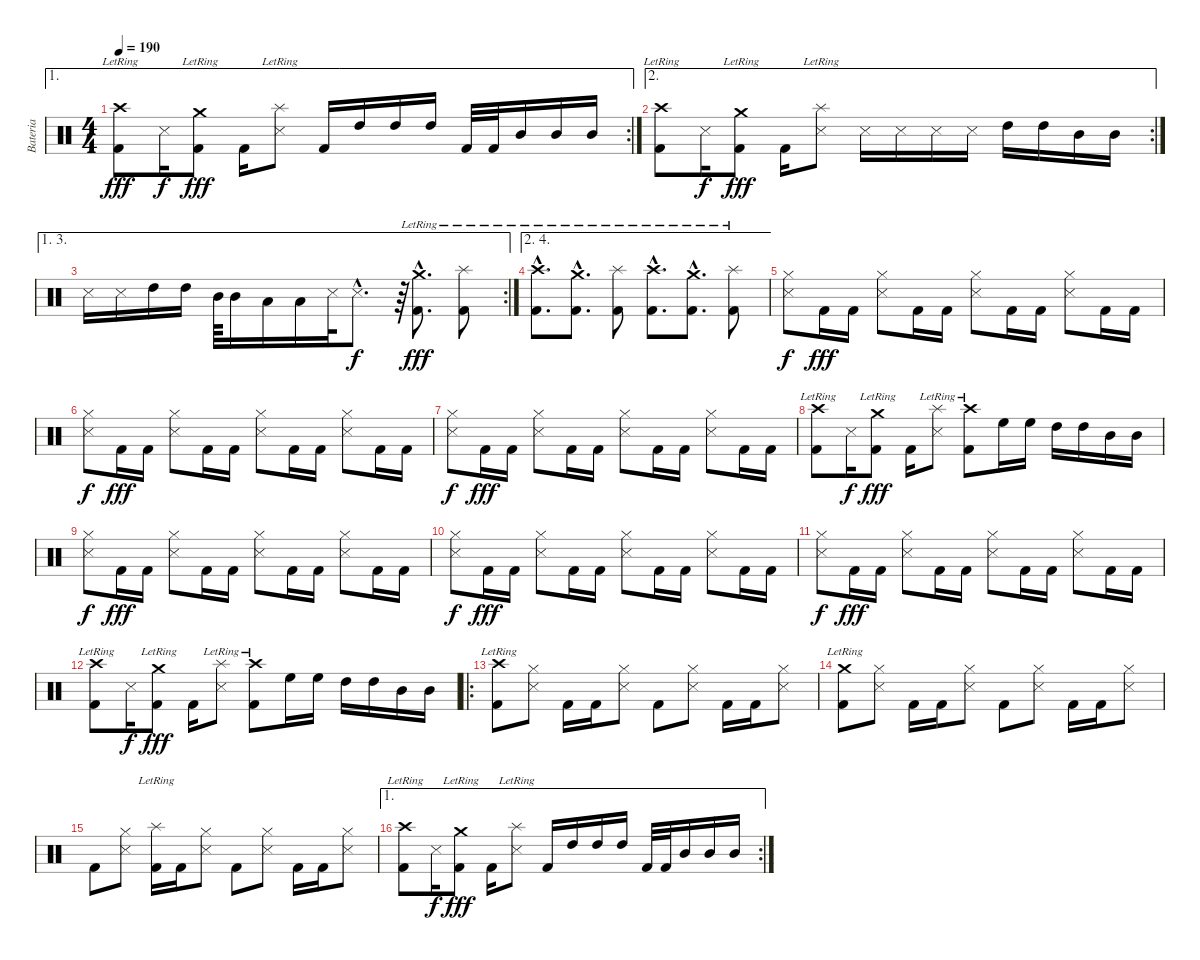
\track ("Bateria" "Bateria") {instrument percussion}
\staff {score}
\articulation defaults
\ae 1
\rc 2
\ts (4 4)
\tempo 190
\clef neutral
\ks c
("Crash high (hit)"{lr} "Kick (hit) 2").8{dy fff} "Snare (side stick) 3".16{dy f} ("Crash medium (hit)"{lr} "Kick (hit) 2").8{dy fff} "Kick (hit) 2".16 ("Splash (hit)"{lr} "Snare (side stick) 3").8 "Kick (hit) 2".16 "High Tom (hit)".16 "High Tom (hit)".16 "High Tom (hit)".16 "Kick (hit) 2".32 "Kick (hit) 2".32 "Mid Tom (hit)".16 "Mid Tom (hit)".16 "Mid Tom (hit)".16 |
\ae 2
\rc 2
("Crash high (hit)"{lr} "Kick (hit) 2").8 "Snare (side stick) 3".16{dy f} ("Crash medium (hit)"{lr} "Kick (hit) 2").8{dy fff} "Kick (hit) 2".16 ("Splash (hit)"{lr} "Snare (side stick) 3").8 "Snare (side stick) 3".16 "Snare (side stick) 3".16 "Snare (side stick) 3".16 "Snare (side stick) 3".16 "High Tom (hit)".16 "High Tom (hit)".16 "Mid Tom (hit)".16 "Mid Tom (hit)".16 |
\ae (1 3)
\rc 2 "Snare (side stick) 3".16 "Snare (side stick) 3".16 "High Tom (hit)".16 "High Tom (hit)".16 "Mid Tom (hit)".64 "Mid Tom (hit)".16 "Low Tom (hit)".16 "Low Tom (hit)".16 "Snare (side stick) 3".32 "Snare (side stick) 3"{hac}.8{d dy f}
r.64 ("Crash medium (hit)"{hac lr} "Kick (hit) 2"{hac}).8{d dy fff} ("Splash (hit)"{lr} "Kick (hit) 2").8 |
\ae (2 4)
("Crash high (hit)"{hac lr} "Kick (hit) 2"{hac}).8{d} ("Crash medium (hit)"{hac lr} "Kick (hit) 2"{hac}).8{d} ("Splash (hit)"{lr} "Kick (hit) 2").8 ("Crash high (hit)"{hac lr} "Kick (hit) 2"{hac}).8{d} ("Crash medium (hit)"{hac lr} "Kick (hit) 2"{hac}).8{d} ("Splash (hit)"{lr} "Kick (hit) 2").8 |
("Hi-Hat (closed)" "Snare (side stick) 3").8{dy f} "Kick (hit) 2".16{dy fff} "Kick (hit) 2".16 ("Hi-Hat (closed)" "Snare (side stick) 3").8 "Kick (hit) 2".16 "Kick (hit) 2".16 ("Hi-Hat (closed)" "Snare (side stick) 3").8 "Kick (hit) 2".16 "Kick (hit) 2".16 ("Hi-Hat (closed)" "Snare (side stick) 3").8 "Kick (hit) 2".16 "Kick (hit) 2".16 |
("Hi-Hat (closed)" "Snare (side stick) 3").8{dy f} "Kick (hit) 2".16{dy fff} "Kick (hit) 2".16 ("Hi-Hat (closed)" "Snare (side stick) 3").8 "Kick (hit) 2".16 "Kick (hit) 2".16 ("Hi-Hat (closed)" "Snare (side stick) 3").8 "Kick (hit) 2".16 "Kick (hit) 2".16 ("Hi-Hat (closed)" "Snare (side stick) 3").8 "Kick (hit) 2".16 "Kick (hit) 2".16 |
("Hi-Hat (closed)" "Snare (side stick) 3").8{dy f} "Kick (hit) 2".16{dy fff} "Kick (hit) 2".16 ("Hi-Hat (closed)" "Snare (side stick) 3").8 "Kick (hit) 2".16 "Kick (hit) 2".16 ("Hi-Hat (closed)" "Snare (side stick) 3").8 "Kick (hit) 2".16 "Kick (hit) 2".16 ("Hi-Hat (closed)" "Snare (side stick) 3").8 "Kick (hit) 2".16 "Kick (hit) 2".16 |
("Crash high (hit)"{lr} "Kick (hit) 2").8 "Snare (side stick) 3".16{dy f} ("Crash medium (hit)"{lr} "Kick (hit) 2").8{dy fff} "Kick (hit) 2".16 ("Splash (hit)"{lr} "Snare (side stick) 3").8 ("Crash high (hit)"{lr} "Kick (hit) 2").8 "High Floor Tom (hit)".16 "High Floor Tom (hit)".16 "High Tom (hit)".16 "High Tom (hit)".16 "Mid Tom (hit)".16 "Mid Tom (hit)".16 |
("Hi-Hat (closed)" "Snare (side stick) 3").8{dy f} "Kick (hit) 2".16{dy fff} "Kick (hit) 2".16 ("Hi-Hat (closed)" "Snare (side stick) 3").8 "Kick (hit) 2".16 "Kick (hit) 2".16 ("Hi-Hat (closed)" "Snare (side stick) 3").8 "Kick (hit) 2".16 "Kick (hit) 2".16 ("Hi-Hat (closed)" "Snare (side stick) 3").8 "Kick (hit) 2".16 "Kick (hit) 2".16 |
("Hi-Hat (closed)" "Snare (side stick) 3").8{dy f} "Kick (hit) 2".16{dy fff} "Kick (hit) 2".16 ("Hi-Hat (closed)" "Snare (side stick) 3").8 "Kick (hit) 2".16 "Kick (hit) 2".16 ("Hi-Hat (closed)" "Snare (side stick) 3").8 "Kick (hit) 2".16 "Kick (hit) 2".16 ("Hi-Hat (closed)" "Snare (side stick) 3").8 "Kick (hit) 2".16 "Kick (hit) 2".16 |
("Hi-Hat (closed)" "Snare (side stick) 3").8{dy f} "Kick (hit) 2".16{dy fff} "Kick (hit) 2".16 ("Hi-Hat (closed)" "Snare (side stick) 3").8 "Kick (hit) 2".16 "Kick (hit) 2".16 ("Hi-Hat (closed)" "Snare (side stick) 3").8 "Kick (hit) 2".16 "Kick (hit) 2".16 ("Hi-Hat (closed)" "Snare (side stick) 3").8 "Kick (hit) 2".16 "Kick (hit) 2".16 |
("Crash high (hit)"{lr} "Kick (hit) 2").8 "Snare (side stick) 3".16{dy f} ("Crash medium (hit)"{lr} "Kick (hit) 2").8{dy fff} "Kick (hit) 2".16 ("Splash (hit)"{lr} "Snare (side stick) 3").8 ("Crash high (hit)"{lr} "Kick (hit) 2").8 "High Floor Tom (hit)".16 "High Floor Tom (hit)".16 "High Tom (hit)".16 "High Tom (hit)".16 "Mid Tom (hit)".16 "Mid Tom (hit)".16 |
\ro
("Crash high (hit)"{lr} "Kick (hit) 2").8 ("Hi-Hat (closed)" "Snare (side stick) 3").8 "Kick (hit) 2".16 "Kick (hit) 2".16 ("Hi-Hat (closed)" "Snare (side stick) 3").8 "Kick (hit) 2".8 ("Hi-Hat (closed)" "Snare (side stick) 3").8 "Kick (hit) 2".16 "Kick (hit) 2".16 ("Hi-Hat (closed)" "Snare (side stick) 3").8 |
("Crash medium (hit)"{lr} "Kick (hit) 2").8 ("Hi-Hat (closed)" "Snare (side stick) 3").8 "Kick (hit) 2".16 "Kick (hit) 2".16 ("Hi-Hat (closed)" "Snare (side stick) 3").8 "Kick (hit) 2".8 ("Hi-Hat (closed)" "Snare (side stick) 3").8 "Kick (hit) 2".16 "Kick (hit) 2".16 ("Hi-Hat (closed)" "Snare (side stick) 3").8 |
"Kick (hit) 2".8 ("Hi-Hat (closed)" "Snare (side stick) 3").8 ("Splash (hit)"{lr} "Kick (hit) 2").16 "Kick (hit) 2".16 ("Hi-Hat (closed)" "Snare (side stick) 3").8 "Kick (hit) 2".8 ("Hi-Hat (closed)" "Snare (side stick) 3").8 "Kick (hit) 2".16 "Kick (hit) 2".16 ("Hi-Hat (closed)" "Snare (side stick) 3").8 |
\ae 1
\rc 2
("Crash high (hit)"{lr} "Kick (hit) 2").8 "Snare (side stick) 3".16{dy f} ("Crash medium (hit)"{lr} "Kick (hit) 2").8{dy fff} "Kick (hit) 2".16 ("Splash (hit)"{lr} "Snare (side stick) 3").8 "Kick (hit) 2".16 "High Tom (hit)".16 "High Tom (hit)".16 "High Tom (hit)".16 "Kick (hit) 2".32 "Kick (hit) 2".32 "Mid Tom (hit)".16 "Mid Tom (hit)".16 "Mid Tom (hit)".16
